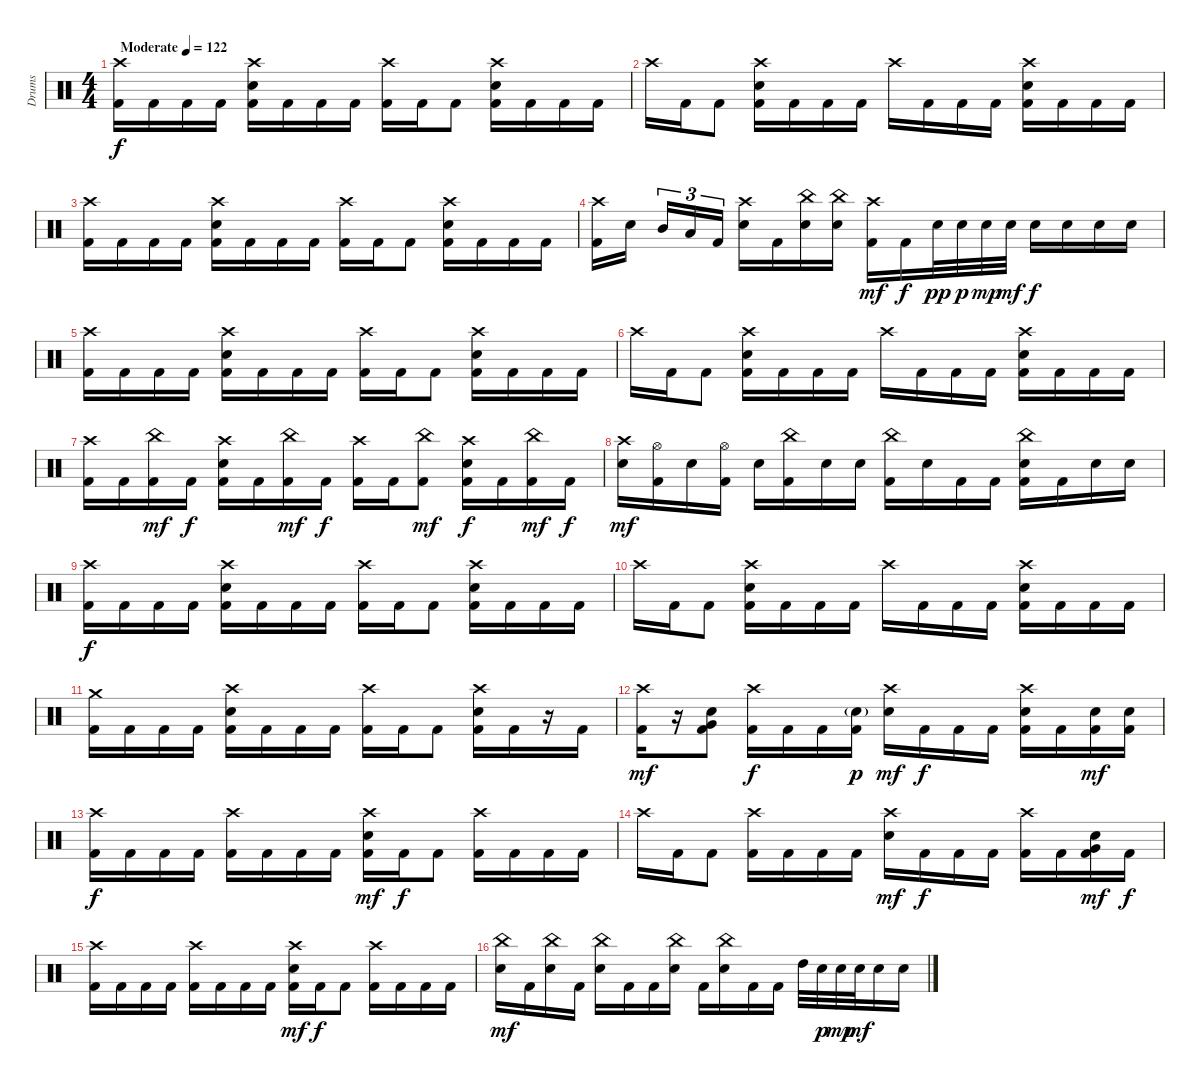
\track ("Drums" "Drums") {instrument percussion}
\staff {score}
\articulation defaults
\ts (4 4)
\tempo (122 "Moderate")
\clef neutral
\ks c
("Crash high (hit)" "Kick (hit) 2").16{dy f} "Kick (hit) 2".16 "Kick (hit) 2".16 "Kick (hit) 2".16 ("Crash high (hit)" "Electric Snare (hit)" "Kick (hit) 2").16 "Kick (hit) 2".16 "Kick (hit) 2".16 "Kick (hit) 2".16 ("Crash high (hit)" "Kick (hit) 2").16 "Kick (hit) 2".16 "Kick (hit) 2".8 ("Crash high (hit)" "Electric Snare (hit)" "Kick (hit) 2").16 "Kick (hit) 2".16 "Kick (hit) 2".16 "Kick (hit) 2".16 |
"Crash high (hit)".16 "Kick (hit) 2".16 "Kick (hit) 2".8 ("Crash high (hit)" "Electric Snare (hit)" "Kick (hit) 2").16 "Kick (hit) 2".16 "Kick (hit) 2".16 "Kick (hit) 2".16 "Crash high (hit)".16 "Kick (hit) 2".16 "Kick (hit) 2".16 "Kick (hit) 2".16 ("Crash high (hit)" "Electric Snare (hit)" "Kick (hit) 2").16 "Kick (hit) 2".16 "Kick (hit) 2".16 "Kick (hit) 2".16 |
("Crash high (hit)" "Kick (hit) 2").16 "Kick (hit) 2".16 "Kick (hit) 2".16 "Kick (hit) 2".16 ("Crash high (hit)" "Electric Snare (hit)" "Kick (hit) 2").16 "Kick (hit) 2".16 "Kick (hit) 2".16 "Kick (hit) 2".16 ("Crash high (hit)" "Kick (hit) 2").16 "Kick (hit) 2".16 "Kick (hit) 2".8 ("Crash high (hit)" "Electric Snare (hit)" "Kick (hit) 2").16 "Kick (hit) 2".16 "Kick (hit) 2".16 "Kick (hit) 2".16 |
("Crash high (hit)" "Kick (hit) 2").16 "Electric Snare (hit)".16{beam splitsecondary} "Mid Tom (hit)".16{tu (3 2)} "Low Tom (hit)".16{tu (3 2)} "Kick (hit) 2".16{tu (3 2)} ("Crash high (hit)" "Electric Snare (hit)").16 "Kick (hit) 2".16 ("China (hit)" "Electric Snare (hit)").16 ("China (hit)" "Electric Snare (hit)").16 ("Crash high (hit)" "Kick (hit) 2").16{dy mf} "Kick (hit) 2".16{dy f} "Electric Snare (hit)".32{dy pp} "Electric Snare (hit)".32{dy p} "Electric Snare (hit)".32{dy mp} "Electric Snare (hit)".32{dy mf} "Electric Snare (hit)".16{dy f} "Electric Snare (hit)".16 "Electric Snare (hit)".16 "Electric Snare (hit)".16 |
("Crash high (hit)" "Kick (hit) 2").16 "Kick (hit) 2".16 "Kick (hit) 2".16 "Kick (hit) 2".16 ("Crash high (hit)" "Electric Snare (hit)" "Kick (hit) 2").16 "Kick (hit) 2".16 "Kick (hit) 2".16 "Kick (hit) 2".16 ("Crash high (hit)" "Kick (hit) 2").16 "Kick (hit) 2".16 "Kick (hit) 2".8 ("Crash high (hit)" "Electric Snare (hit)" "Kick (hit) 2").16 "Kick (hit) 2".16 "Kick (hit) 2".16 "Kick (hit) 2".16 |
"Crash high (hit)".16 "Kick (hit) 2".16 "Kick (hit) 2".8 ("Crash high (hit)" "Electric Snare (hit)" "Kick (hit) 2").16 "Kick (hit) 2".16 "Kick (hit) 2".16 "Kick (hit) 2".16 "Crash high (hit)".16 "Kick (hit) 2".16 "Kick (hit) 2".16 "Kick (hit) 2".16 ("Crash high (hit)" "Electric Snare (hit)" "Kick (hit) 2").16 "Kick (hit) 2".16 "Kick (hit) 2".16 "Kick (hit) 2".16 |
("Crash high (hit)" "Kick (hit) 2").16 "Kick (hit) 2".16 ("China (hit)" "Kick (hit) 2").16{dy mf} "Kick (hit) 2".16{dy f} ("Crash high (hit)" "Electric Snare (hit)" "Kick (hit) 2").16 "Kick (hit) 2".16 ("China (hit)" "Kick (hit) 2").16{dy mf} "Kick (hit) 2".16{dy f} ("Crash high (hit)" "Kick (hit) 2").16 "Kick (hit) 2".16 ("China (hit)" "Kick (hit) 2").8{dy mf} ("Crash high (hit)" "Electric Snare (hit)" "Kick (hit) 2").16{dy f} "Kick (hit) 2".16 ("China (hit)" "Kick (hit) 2").16{dy mf} "Kick (hit) 2".16{dy f} |
("Crash high (hit)" "Electric Snare (hit)").16{dy mf} ("Hi-Hat (open)" "Kick (hit) 2").16 "Electric Snare (hit)".16 ("Hi-Hat (open)" "Kick (hit) 2").16 "Electric Snare (hit)".16 ("China (hit)" "Kick (hit) 2").16 "Electric Snare (hit)".16 "Electric Snare (hit)".16 ("China (hit)" "Kick (hit) 2").16 "Electric Snare (hit)".16 "Kick (hit) 2".16 "Kick (hit) 2".16 ("China (hit)" "Electric Snare (hit)" "Kick (hit) 2").16 "Kick (hit) 2".16 "Electric Snare (hit)".16 "Electric Snare (hit)".16 |
("Crash high (hit)" "Kick (hit) 2").16{dy f} "Kick (hit) 2".16 "Kick (hit) 2".16 "Kick (hit) 2".16 ("Crash high (hit)" "Electric Snare (hit)" "Kick (hit) 2").16 "Kick (hit) 2".16 "Kick (hit) 2".16 "Kick (hit) 2".16 ("Crash high (hit)" "Kick (hit) 2").16 "Kick (hit) 2".16 "Kick (hit) 2".8 ("Crash high (hit)" "Electric Snare (hit)" "Kick (hit) 2").16 "Kick (hit) 2".16 "Kick (hit) 2".16 "Kick (hit) 2".16 |
"Crash high (hit)".16 "Kick (hit) 2".16 "Kick (hit) 2".8 ("Crash high (hit)" "Electric Snare (hit)" "Kick (hit) 2").16 "Kick (hit) 2".16 "Kick (hit) 2".16 "Kick (hit) 2".16 "Crash high (hit)".16 "Kick (hit) 2".16 "Kick (hit) 2".16 "Kick (hit) 2".16 ("Crash high (hit)" "Electric Snare (hit)" "Kick (hit) 2").16 "Kick (hit) 2".16 "Kick (hit) 2".16 "Kick (hit) 2".16 |
("Crash medium (hit)" "Kick (hit) 2").16 "Kick (hit) 2".16 "Kick (hit) 2".16 "Kick (hit) 2".16 ("Crash high (hit)" "Electric Snare (hit)" "Kick (hit) 2").16 "Kick (hit) 2".16 "Kick (hit) 2".16 "Kick (hit) 2".16 ("Crash high (hit)" "Kick (hit) 2").16 "Kick (hit) 2".16 "Kick (hit) 2".8 ("Crash high (hit)" "Electric Snare (hit)" "Kick (hit) 2").16 "Kick (hit) 2".16 r.16 "Kick (hit) 2".16 |
("Crash high (hit)" "Kick (hit) 2").16{dy mf} r.16 ("Very Low Tom (hit)" "Electric Snare (hit)" "Kick (hit) 2").8 ("Crash high (hit)" "Kick (hit) 2").16{dy f} "Kick (hit) 2".16 "Kick (hit) 2".16 ("Electric Snare (hit)"{g} "Kick (hit) 2").16{dy p} ("Crash high (hit)" "Electric Snare (hit)").16{dy mf} "Kick (hit) 2".16{dy f} "Kick (hit) 2".16 "Kick (hit) 2".16 ("Crash high (hit)" "Electric Snare (hit)" "Kick (hit) 2").16 "Kick (hit) 2".16 ("Electric Snare (hit)" "Kick (hit) 2").16{dy mf} ("Electric Snare (hit)" "Kick (hit) 2").16 |
("Crash high (hit)" "Kick (hit) 2").16{dy f} "Kick (hit) 2".16 "Kick (hit) 2".16 "Kick (hit) 2".16 ("Crash high (hit)" "Kick (hit) 2").16 "Kick (hit) 2".16 "Kick (hit) 2".16 "Kick (hit) 2".16 ("Crash high (hit)" "Electric Snare (hit)" "Kick (hit) 2").16{dy mf} "Kick (hit) 2".16{dy f} "Kick (hit) 2".8 ("Crash high (hit)" "Kick (hit) 2").16 "Kick (hit) 2".16 "Kick (hit) 2".16 "Kick (hit) 2".16 |
"Crash high (hit)".16 "Kick (hit) 2".16 "Kick (hit) 2".8 ("Crash high (hit)" "Kick (hit) 2").16 "Kick (hit) 2".16 "Kick (hit) 2".16 "Kick (hit) 2".16 ("Crash high (hit)" "Electric Snare (hit)").16{dy mf} "Kick (hit) 2".16{dy f} "Kick (hit) 2".16 "Kick (hit) 2".16 ("Crash high (hit)" "Kick (hit) 2").16 "Kick (hit) 2".16 ("Electric Snare (hit)" "Very Low Tom (hit)" "Kick (hit) 2").16{dy mf} "Kick (hit) 2".16{dy f} |
("Crash high (hit)" "Kick (hit) 2").16 "Kick (hit) 2".16 "Kick (hit) 2".16 "Kick (hit) 2".16 ("Crash high (hit)" "Kick (hit) 2").16 "Kick (hit) 2".16 "Kick (hit) 2".16 "Kick (hit) 2".16 ("Crash high (hit)" "Electric Snare (hit)" "Kick (hit) 2").16{dy mf} "Kick (hit) 2".16{dy f} "Kick (hit) 2".8 ("Crash high (hit)" "Kick (hit) 2").16 "Kick (hit) 2".16 "Kick (hit) 2".16 "Kick (hit) 2".16 |
("China (hit)" "Electric Snare (hit)").16{dy mf} "Kick (hit) 2".16 ("China (hit)" "Electric Snare (hit)").16 "Kick (hit) 2".16 ("China (hit)" "Electric Snare (hit)").16 "Kick (hit) 2".16 "Kick (hit) 2".16 ("China (hit)" "Electric Snare (hit)").16 "Kick (hit) 2".16 ("China (hit)" "Electric Snare (hit)").16 "Kick (hit) 2".16 "Kick (hit) 2".16 "High Tom (hit)".32 "Electric Snare (hit)".32{dy p} "Electric Snare (hit)".32{dy mp} "Electric Snare (hit)".32{dy mf} "Electric Snare (hit)".16 "Electric Snare (hit)".16
